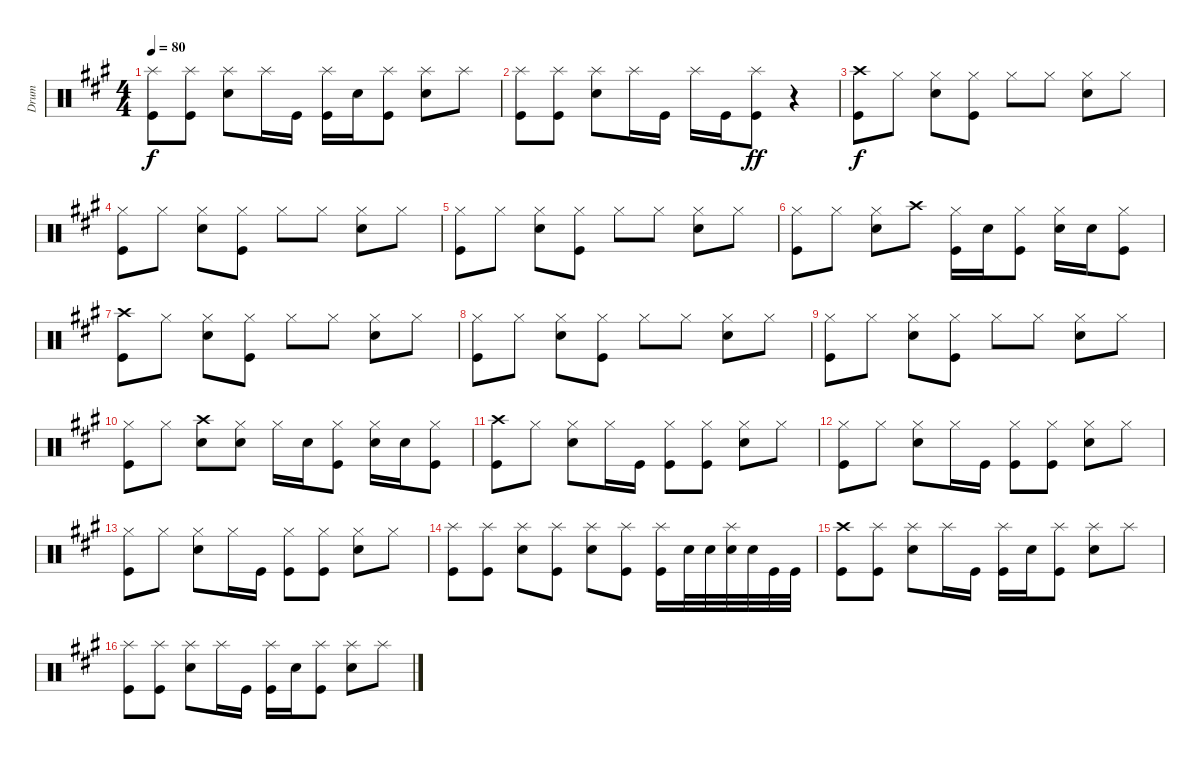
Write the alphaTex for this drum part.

\track ("Drum" "Drum") {instrument percussion}
\staff {score}
\articulation defaults
\ts (4 4)
\tempo 80
\clef neutral
\ks a
("Splash (hit)" "Kick (hit)").8{dy f} ("Splash (hit)" "Kick (hit)").8 ("Splash (hit)" "Electric Snare (hit)").8 "Splash (hit)".16 "Kick (hit)".16 ("Splash (hit)" "Kick (hit)").16 "Electric Snare (hit)".16 ("Splash (hit)" "Kick (hit)").8 ("Splash (hit)" "Electric Snare (hit)").8 "Splash (hit)".8 |
("Splash (hit)" "Kick (hit)").8 ("Splash (hit)" "Kick (hit)").8 ("Splash (hit)" "Electric Snare (hit)").8 "Splash (hit)".16 "Kick (hit)".16 "Splash (hit)".16 "Kick (hit)".16 ("Splash (hit)" "Kick (hit)").8{dy ff} r.4 |
("Crash high (hit)" "Kick (hit)").8{dy f} "Hi-Hat (closed)".8 ("Hi-Hat (closed)" "Snare (hit) 2").8 ("Hi-Hat (closed)" "Kick (hit)").8 "Hi-Hat (closed)".8 "Hi-Hat (closed)".8 ("Hi-Hat (closed)" "Snare (hit) 2").8 "Hi-Hat (closed)".8 |
("Hi-Hat (closed)" "Kick (hit)").8 "Hi-Hat (closed)".8 ("Hi-Hat (closed)" "Snare (hit) 2").8 ("Hi-Hat (closed)" "Kick (hit)").8 "Hi-Hat (closed)".8 "Hi-Hat (closed)".8 ("Hi-Hat (closed)" "Snare (hit) 2").8 "Hi-Hat (closed)".8 |
("Hi-Hat (closed)" "Kick (hit)").8 "Hi-Hat (closed)".8 ("Hi-Hat (closed)" "Snare (hit) 2").8 ("Hi-Hat (closed)" "Kick (hit)").8 "Hi-Hat (closed)".8 "Hi-Hat (closed)".8 ("Hi-Hat (closed)" "Snare (hit) 2").8 "Hi-Hat (closed)".8 |
("Hi-Hat (closed)" "Kick (hit)").8 "Hi-Hat (closed)".8 ("Hi-Hat (closed)" "Snare (hit) 2").8 "Crash high (hit)".8 ("Hi-Hat (closed)" "Kick (hit)").16 "Electric Snare (hit)".16 ("Hi-Hat (closed)" "Kick (hit)").8 ("Hi-Hat (closed)" "Electric Snare (hit)").16 "Electric Snare (hit)".16 ("Hi-Hat (closed)" "Kick (hit)").8 |
("Crash high (hit)" "Kick (hit)").8 "Hi-Hat (closed)".8 ("Hi-Hat (closed)" "Snare (hit) 2").8 ("Hi-Hat (closed)" "Kick (hit)").8 "Hi-Hat (closed)".8 "Hi-Hat (closed)".8 ("Hi-Hat (closed)" "Snare (hit) 2").8 "Hi-Hat (closed)".8 |
("Hi-Hat (closed)" "Kick (hit)").8 "Hi-Hat (closed)".8 ("Hi-Hat (closed)" "Snare (hit) 2").8 ("Hi-Hat (closed)" "Kick (hit)").8 "Hi-Hat (closed)".8 "Hi-Hat (closed)".8 ("Hi-Hat (closed)" "Snare (hit) 2").8 "Hi-Hat (closed)".8 |
("Hi-Hat (closed)" "Kick (hit)").8 "Hi-Hat (closed)".8 ("Hi-Hat (closed)" "Snare (hit) 2").8 ("Hi-Hat (closed)" "Kick (hit)").8 "Hi-Hat (closed)".8 "Hi-Hat (closed)".8 ("Hi-Hat (closed)" "Snare (hit) 2").8 "Hi-Hat (closed)".8 |
("Hi-Hat (closed)" "Kick (hit)").8 "Hi-Hat (closed)".8 ("Crash high (hit)" "Snare (hit) 2").8 ("Hi-Hat (closed)" "Electric Snare (hit)").8 "Hi-Hat (closed)".16 "Electric Snare (hit)".16 ("Hi-Hat (closed)" "Kick (hit)").8 ("Hi-Hat (closed)" "Electric Snare (hit)").16 "Electric Snare (hit)".16 ("Hi-Hat (closed)" "Kick (hit)").8 |
("Crash high (hit)" "Kick (hit)").8 "Hi-Hat (closed)".8 ("Hi-Hat (closed)" "Electric Snare (hit)").8 "Hi-Hat (closed)".16 "Kick (hit)".16 ("Hi-Hat (closed)" "Kick (hit)").8 ("Hi-Hat (closed)" "Kick (hit)").8 ("Hi-Hat (closed)" "Electric Snare (hit)").8 "Hi-Hat (closed)".8 |
("Hi-Hat (closed)" "Kick (hit)").8 "Hi-Hat (closed)".8 ("Hi-Hat (closed)" "Electric Snare (hit)").8 "Hi-Hat (closed)".16 "Kick (hit)".16 ("Hi-Hat (closed)" "Kick (hit)").8 ("Hi-Hat (closed)" "Kick (hit)").8 ("Hi-Hat (closed)" "Electric Snare (hit)").8 "Hi-Hat (closed)".8 |
("Hi-Hat (closed)" "Kick (hit)").8 "Hi-Hat (closed)".8 ("Hi-Hat (closed)" "Electric Snare (hit)").8 "Hi-Hat (closed)".16 "Kick (hit)".16 ("Hi-Hat (closed)" "Kick (hit)").8 ("Hi-Hat (closed)" "Kick (hit)").8 ("Hi-Hat (closed)" "Electric Snare (hit)").8 "Hi-Hat (closed)".8 |
("Splash (hit)" "Kick (hit)").8 ("Splash (hit)" "Kick (hit)").8 ("Splash (hit)" "Electric Snare (hit)").8 ("Splash (hit)" "Kick (hit)").8 ("Splash (hit)" "Electric Snare (hit)").8 ("Splash (hit)" "Kick (hit)").8 ("Splash (hit)" "Kick (hit)").16 "Electric Snare (hit)".32 "Electric Snare (hit)".32 ("Splash (hit)" "Electric Snare (hit)").32 "Electric Snare (hit)".32 "Kick (hit)".32 "Kick (hit)".32 |
("Crash high (hit)" "Kick (hit)").8 ("Splash (hit)" "Kick (hit)").8 ("Splash (hit)" "Electric Snare (hit)").8 "Splash (hit)".16 "Kick (hit)".16 ("Splash (hit)" "Kick (hit)").16 "Electric Snare (hit)".16 ("Splash (hit)" "Kick (hit)").8 ("Splash (hit)" "Electric Snare (hit)").8 "Splash (hit)".8 |
("Splash (hit)" "Kick (hit)").8 ("Splash (hit)" "Kick (hit)").8 ("Splash (hit)" "Electric Snare (hit)").8 "Splash (hit)".16 "Kick (hit)".16 ("Splash (hit)" "Kick (hit)").16 "Electric Snare (hit)".16 ("Splash (hit)" "Kick (hit)").8 ("Splash (hit)" "Electric Snare (hit)").8 "Splash (hit)".8
